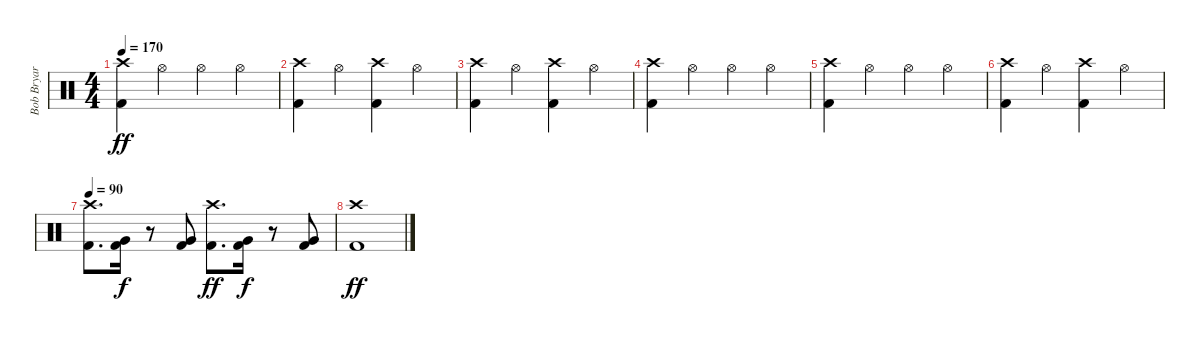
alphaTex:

\track ("Bob Bryar - Drums" "Bob Bryar ") {instrument percussion}
\staff {score}
\articulation defaults
\ts (4 4)
\tempo 170
\clef neutral
\ks c
("Crash high (hit)" "Kick (hit) 2").4{dy ff} "Hi-Hat (open)".4 "Hi-Hat (open)".4 "Hi-Hat (open)".4 |
("Crash high (hit)" "Kick (hit) 2").4 "Hi-Hat (open)".4 ("Crash high (hit)" "Kick (hit) 2").4 "Hi-Hat (open)".4 |
("Crash high (hit)" "Kick (hit) 2").4 "Hi-Hat (open)".4 ("Crash high (hit)" "Kick (hit) 2").4 "Hi-Hat (open)".4 |
("Crash high (hit)" "Kick (hit) 2").4 "Hi-Hat (open)".4 "Hi-Hat (open)".4 "Hi-Hat (open)".4 |
("Crash high (hit)" "Kick (hit) 2").4 "Hi-Hat (open)".4 "Hi-Hat (open)".4 "Hi-Hat (open)".4 |
("Crash high (hit)" "Kick (hit) 2").4 "Hi-Hat (open)".4 ("Crash high (hit)" "Kick (hit) 2").4 "Hi-Hat (open)".4 |
\tempo 90
("Crash high (hit)" "Kick (hit) 2").8{d} ("Very Low Tom (hit)" "Kick (hit) 2").16{dy f} r.8 ("Very Low Tom (hit)" "Kick (hit) 2").8 ("Crash high (hit)" "Kick (hit) 2").8{d dy ff} ("Very Low Tom (hit)" "Kick (hit) 2").16{dy f} r.8 ("Very Low Tom (hit)" "Kick (hit) 2").8 |
("Crash high (hit)" "Kick (hit) 2").1{dy ff}
